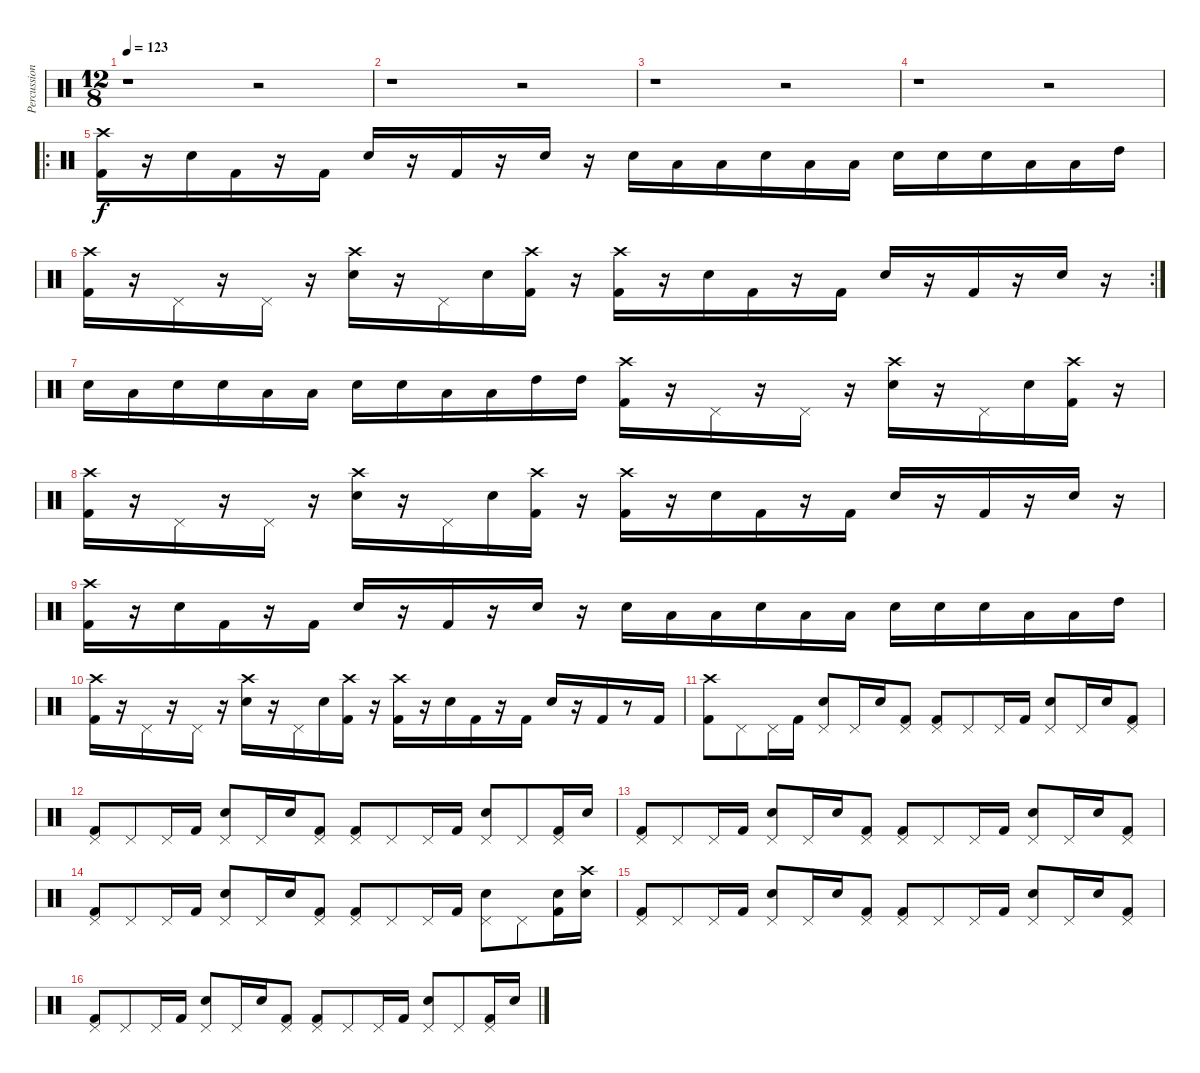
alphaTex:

\track ("Percussion" "Percussion") {instrument percussion}
\staff {score}
\articulation defaults
\ts (12 8)
\tempo 123
\clef neutral
\ks c
r.1{dy f} r.2 |
r.1 r.2 |
r.1 r.2 |
r.1 r.2 |
\ro
("Crash high (hit)" "Kick (hit) 2").16 r.16 "Snare (hit) 2".16 "Kick (hit) 2".16 r.16 "Kick (hit) 2".16 "Snare (hit) 2".16 r.16 "Kick (hit) 2".16 r.16 "Snare (hit) 2".16 r.16 "Snare (hit) 2".16 "Low Tom (hit)".16 "Low Tom (hit)".16 "Snare (hit) 2".16 "Low Tom (hit)".16 "Low Tom (hit)".16 "Snare (hit) 2".16 "Snare (hit) 2".16 "Snare (hit) 2".16 "Low Tom (hit)".16 "Low Tom (hit)".16 "High Tom (hit)".16 |
\rc 2
("Crash high (hit)" "Kick (hit) 2").16 r.16 "Pedal Hi-Hat (hit)".16 r.16 "Pedal Hi-Hat (hit)".16 r.16 ("Snare (hit) 2" "Crash high (hit)").16 r.16 "Pedal Hi-Hat (hit)".16 "Snare (hit) 2".16 ("Crash high (hit)" "Kick (hit) 2").16 r.16 ("Crash high (hit)" "Kick (hit) 2").16 r.16 "Snare (hit) 2".16 "Kick (hit) 2".16 r.16 "Kick (hit) 2".16 "Snare (hit) 2".16 r.16 "Kick (hit) 2".16 r.16 "Snare (hit) 2".16 r.16 |
"Snare (hit) 2".16 "Low Tom (hit)".16 "Snare (hit) 2".16 "Snare (hit) 2".16 "Low Tom (hit)".16 "Low Tom (hit)".16 "Snare (hit) 2".16 "Snare (hit) 2".16 "Low Tom (hit)".16 "Low Tom (hit)".16 "High Tom (hit)".16 "High Tom (hit)".16 ("Crash high (hit)" "Kick (hit) 2").16 r.16 "Pedal Hi-Hat (hit)".16 r.16 "Pedal Hi-Hat (hit)".16 r.16 ("Snare (hit) 2" "Crash high (hit)").16 r.16 "Pedal Hi-Hat (hit)".16 "Snare (hit) 2".16 ("Crash high (hit)" "Kick (hit) 2").16 r.16 |
("Crash high (hit)" "Kick (hit) 2").16 r.16 "Pedal Hi-Hat (hit)".16 r.16 "Pedal Hi-Hat (hit)".16 r.16 ("Snare (hit) 2" "Crash high (hit)").16 r.16 "Pedal Hi-Hat (hit)".16 "Snare (hit) 2".16 ("Crash high (hit)" "Kick (hit) 2").16 r.16 ("Crash high (hit)" "Kick (hit) 2").16 r.16 "Snare (hit) 2".16 "Kick (hit) 2".16 r.16 "Kick (hit) 2".16 "Snare (hit) 2".16 r.16 "Kick (hit) 2".16 r.16 "Snare (hit) 2".16 r.16 |
("Crash high (hit)" "Kick (hit) 2").16 r.16 "Snare (hit) 2".16 "Kick (hit) 2".16 r.16 "Kick (hit) 2".16 "Snare (hit) 2".16 r.16 "Kick (hit) 2".16 r.16 "Snare (hit) 2".16 r.16 "Snare (hit) 2".16 "Low Tom (hit)".16 "Low Tom (hit)".16 "Snare (hit) 2".16 "Low Tom (hit)".16 "Low Tom (hit)".16 "Snare (hit) 2".16 "Snare (hit) 2".16 "Snare (hit) 2".16 "Low Tom (hit)".16 "Low Tom (hit)".16 "High Tom (hit)".16 |
("Crash high (hit)" "Kick (hit) 2").16 r.16 "Pedal Hi-Hat (hit)".16 r.16 "Pedal Hi-Hat (hit)".16 r.16 ("Snare (hit) 2" "Crash high (hit)").16 r.16 "Pedal Hi-Hat (hit)".16 "Snare (hit) 2".16 ("Crash high (hit)" "Kick (hit) 2").16 r.16 ("Crash high (hit)" "Kick (hit) 2").16 r.16 "Snare (hit) 2".16 "Kick (hit) 2".16 r.16 "Kick (hit) 2".16 "Snare (hit) 2".16 r.16 "Kick (hit) 2".16 r.8 "Kick (hit) 2".16 |
("Crash high (hit)" "Kick (hit) 2").8 "Pedal Hi-Hat (hit)".8 "Pedal Hi-Hat (hit)".16 "Kick (hit) 2".16 ("Snare (hit) 2" "Pedal Hi-Hat (hit)").8 "Pedal Hi-Hat (hit)".16 "Snare (hit) 2".16 ("Pedal Hi-Hat (hit)" "Kick (hit) 2").8 ("Pedal Hi-Hat (hit)" "Kick (hit) 2").8 "Pedal Hi-Hat (hit)".8 "Pedal Hi-Hat (hit)".16 "Kick (hit) 2".16 ("Snare (hit) 2" "Pedal Hi-Hat (hit)").8 "Pedal Hi-Hat (hit)".16 "Snare (hit) 2".16 ("Pedal Hi-Hat (hit)" "Kick (hit) 2").8 |
("Pedal Hi-Hat (hit)" "Kick (hit) 2").8 "Pedal Hi-Hat (hit)".8 "Pedal Hi-Hat (hit)".16 "Kick (hit) 2".16 ("Snare (hit) 2" "Pedal Hi-Hat (hit)").8 "Pedal Hi-Hat (hit)".16 "Snare (hit) 2".16 ("Pedal Hi-Hat (hit)" "Kick (hit) 2").8 ("Pedal Hi-Hat (hit)" "Kick (hit) 2").8 "Pedal Hi-Hat (hit)".8 "Pedal Hi-Hat (hit)".16 "Kick (hit) 2".16 ("Snare (hit) 2" "Pedal Hi-Hat (hit)").8 "Pedal Hi-Hat (hit)".8 ("Pedal Hi-Hat (hit)" "Kick (hit) 2").16 "Snare (hit) 2".16 |
("Pedal Hi-Hat (hit)" "Kick (hit) 2").8 "Pedal Hi-Hat (hit)".8 "Pedal Hi-Hat (hit)".16 "Kick (hit) 2".16 ("Snare (hit) 2" "Pedal Hi-Hat (hit)").8 "Pedal Hi-Hat (hit)".16 "Snare (hit) 2".16 ("Pedal Hi-Hat (hit)" "Kick (hit) 2").8 ("Pedal Hi-Hat (hit)" "Kick (hit) 2").8 "Pedal Hi-Hat (hit)".8 "Pedal Hi-Hat (hit)".16 "Kick (hit) 2".16 ("Snare (hit) 2" "Pedal Hi-Hat (hit)").8 "Pedal Hi-Hat (hit)".16 "Snare (hit) 2".16 ("Pedal Hi-Hat (hit)" "Kick (hit) 2").8 |
("Pedal Hi-Hat (hit)" "Kick (hit) 2").8 "Pedal Hi-Hat (hit)".8 "Pedal Hi-Hat (hit)".16 "Kick (hit) 2".16 ("Snare (hit) 2" "Pedal Hi-Hat (hit)").8 "Pedal Hi-Hat (hit)".16 "Snare (hit) 2".16 ("Pedal Hi-Hat (hit)" "Kick (hit) 2").8 ("Pedal Hi-Hat (hit)" "Kick (hit) 2").8 "Pedal Hi-Hat (hit)".8 "Pedal Hi-Hat (hit)".16 "Kick (hit) 2".16 ("Snare (hit) 2" "Pedal Hi-Hat (hit)").8 "Pedal Hi-Hat (hit)".8 ("Snare (hit) 2" "Kick (hit) 2").16 ("Snare (hit) 2" "Crash high (hit)").16 |
("Pedal Hi-Hat (hit)" "Kick (hit) 2").8 "Pedal Hi-Hat (hit)".8 "Pedal Hi-Hat (hit)".16 "Kick (hit) 2".16 ("Snare (hit) 2" "Pedal Hi-Hat (hit)").8 "Pedal Hi-Hat (hit)".16 "Snare (hit) 2".16 ("Pedal Hi-Hat (hit)" "Kick (hit) 2").8 ("Pedal Hi-Hat (hit)" "Kick (hit) 2").8 "Pedal Hi-Hat (hit)".8 "Pedal Hi-Hat (hit)".16 "Kick (hit) 2".16 ("Snare (hit) 2" "Pedal Hi-Hat (hit)").8 "Pedal Hi-Hat (hit)".16 "Snare (hit) 2".16 ("Pedal Hi-Hat (hit)" "Kick (hit) 2").8 |
("Pedal Hi-Hat (hit)" "Kick (hit) 2").8 "Pedal Hi-Hat (hit)".8 "Pedal Hi-Hat (hit)".16 "Kick (hit) 2".16 ("Snare (hit) 2" "Pedal Hi-Hat (hit)").8 "Pedal Hi-Hat (hit)".16 "Snare (hit) 2".16 ("Pedal Hi-Hat (hit)" "Kick (hit) 2").8 ("Pedal Hi-Hat (hit)" "Kick (hit) 2").8 "Pedal Hi-Hat (hit)".8 "Pedal Hi-Hat (hit)".16 "Kick (hit) 2".16 ("Snare (hit) 2" "Pedal Hi-Hat (hit)").8 "Pedal Hi-Hat (hit)".8 ("Pedal Hi-Hat (hit)" "Kick (hit) 2").16 "Snare (hit) 2".16
